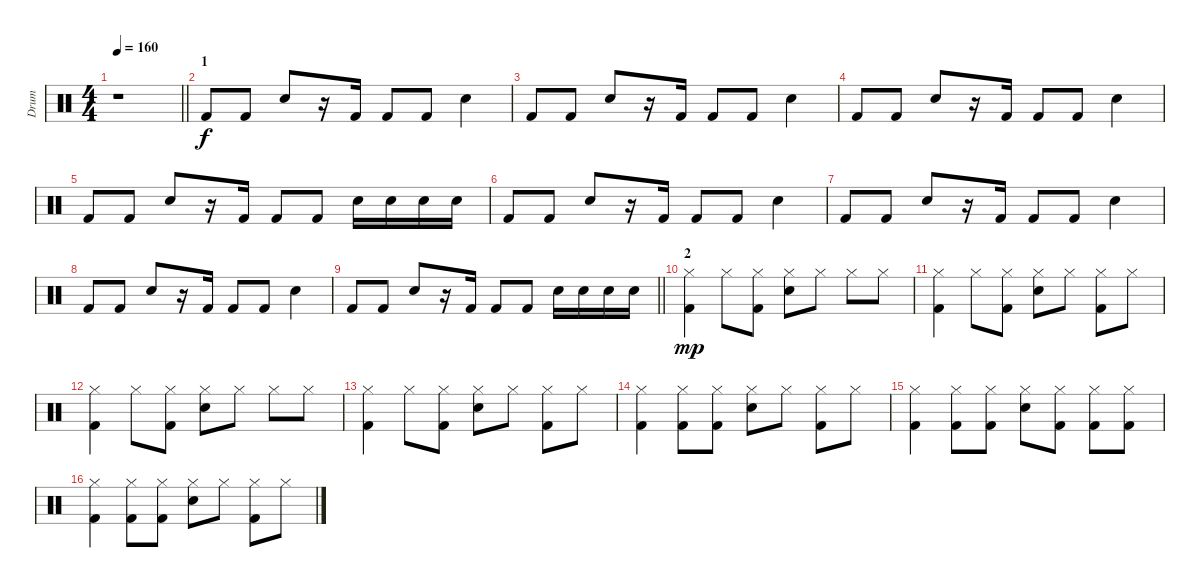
\track ("Drum" "Drum") {instrument percussion}
\staff {score}
\articulation defaults
\ts (4 4)
\tempo 160
\clef neutral
\barLineRight lightlight
\ks c
r.1{dy f} |
\section ("" "1")
"Kick (hit) 2".8 "Kick (hit) 2".8 "Electric Snare (hit)".8 r.16 "Kick (hit) 2".16 "Kick (hit) 2".8 "Kick (hit) 2".8 "Electric Snare (hit)".4 |
"Kick (hit) 2".8 "Kick (hit) 2".8 "Electric Snare (hit)".8 r.16 "Kick (hit) 2".16 "Kick (hit) 2".8 "Kick (hit) 2".8 "Electric Snare (hit)".4 |
"Kick (hit) 2".8 "Kick (hit) 2".8 "Electric Snare (hit)".8 r.16 "Kick (hit) 2".16 "Kick (hit) 2".8 "Kick (hit) 2".8 "Electric Snare (hit)".4 |
"Kick (hit) 2".8 "Kick (hit) 2".8 "Electric Snare (hit)".8 r.16 "Kick (hit) 2".16 "Kick (hit) 2".8 "Kick (hit) 2".8 "Electric Snare (hit)".16 "Electric Snare (hit)".16 "Electric Snare (hit)".16 "Electric Snare (hit)".16 |
"Kick (hit) 2".8 "Kick (hit) 2".8 "Electric Snare (hit)".8 r.16 "Kick (hit) 2".16 "Kick (hit) 2".8 "Kick (hit) 2".8 "Electric Snare (hit)".4 |
"Kick (hit) 2".8 "Kick (hit) 2".8 "Electric Snare (hit)".8 r.16 "Kick (hit) 2".16 "Kick (hit) 2".8 "Kick (hit) 2".8 "Electric Snare (hit)".4 |
"Kick (hit) 2".8 "Kick (hit) 2".8 "Electric Snare (hit)".8 r.16 "Kick (hit) 2".16 "Kick (hit) 2".8 "Kick (hit) 2".8 "Electric Snare (hit)".4 |
\barLineRight lightlight "Kick (hit) 2".8 "Kick (hit) 2".8 "Electric Snare (hit)".8
r.16 "Kick (hit) 2".16 "Kick (hit) 2".8 "Kick (hit) 2".8 "Electric Snare (hit)".16 "Electric Snare (hit)".16 "Electric Snare (hit)".16 "Electric Snare (hit)".16 |
\section ("" "2")
("Hi-Hat (closed)" "Kick (hit) 2").4{dy mp} "Hi-Hat (closed)".8 ("Hi-Hat (closed)" "Kick (hit) 2").8 ("Hi-Hat (closed)" "Hand Clap (hit)").8 "Hi-Hat (closed)".8 "Hi-Hat (closed)".8 "Hi-Hat (closed)".8 |
("Hi-Hat (closed)" "Kick (hit) 2").4 "Hi-Hat (closed)".8 ("Hi-Hat (closed)" "Kick (hit) 2").8 ("Hi-Hat (closed)" "Hand Clap (hit)").8 "Hi-Hat (closed)".8 ("Hi-Hat (closed)" "Kick (hit) 2").8 "Hi-Hat (closed)".8 |
("Hi-Hat (closed)" "Kick (hit) 2").4 "Hi-Hat (closed)".8 ("Hi-Hat (closed)" "Kick (hit) 2").8 ("Hi-Hat (closed)" "Hand Clap (hit)").8 "Hi-Hat (closed)".8 "Hi-Hat (closed)".8 "Hi-Hat (closed)".8 |
("Hi-Hat (closed)" "Kick (hit) 2").4 "Hi-Hat (closed)".8 ("Hi-Hat (closed)" "Kick (hit) 2").8 ("Hi-Hat (closed)" "Hand Clap (hit)").8 "Hi-Hat (closed)".8 ("Hi-Hat (closed)" "Kick (hit) 2").8 "Hi-Hat (closed)".8 |
("Hi-Hat (closed)" "Kick (hit) 2").4 ("Hi-Hat (closed)" "Kick (hit) 2").8 ("Hi-Hat (closed)" "Kick (hit) 2").8 ("Hi-Hat (closed)" "Hand Clap (hit)").8 "Hi-Hat (closed)".8 ("Hi-Hat (closed)" "Kick (hit) 2").8 "Hi-Hat (closed)".8 |
("Hi-Hat (closed)" "Kick (hit) 2").4 ("Hi-Hat (closed)" "Kick (hit) 2").8 ("Hi-Hat (closed)" "Kick (hit) 2").8 ("Hi-Hat (closed)" "Hand Clap (hit)").8 ("Hi-Hat (closed)" "Kick (hit) 2").8 ("Hi-Hat (closed)" "Kick (hit) 2").8 ("Hi-Hat (closed)" "Kick (hit) 2").8 |
("Hi-Hat (closed)" "Kick (hit) 2").4 ("Hi-Hat (closed)" "Kick (hit) 2").8 ("Hi-Hat (closed)" "Kick (hit) 2").8 ("Hi-Hat (closed)" "Hand Clap (hit)").8 "Hi-Hat (closed)".8 ("Hi-Hat (closed)" "Kick (hit) 2").8 "Hi-Hat (closed)".8
